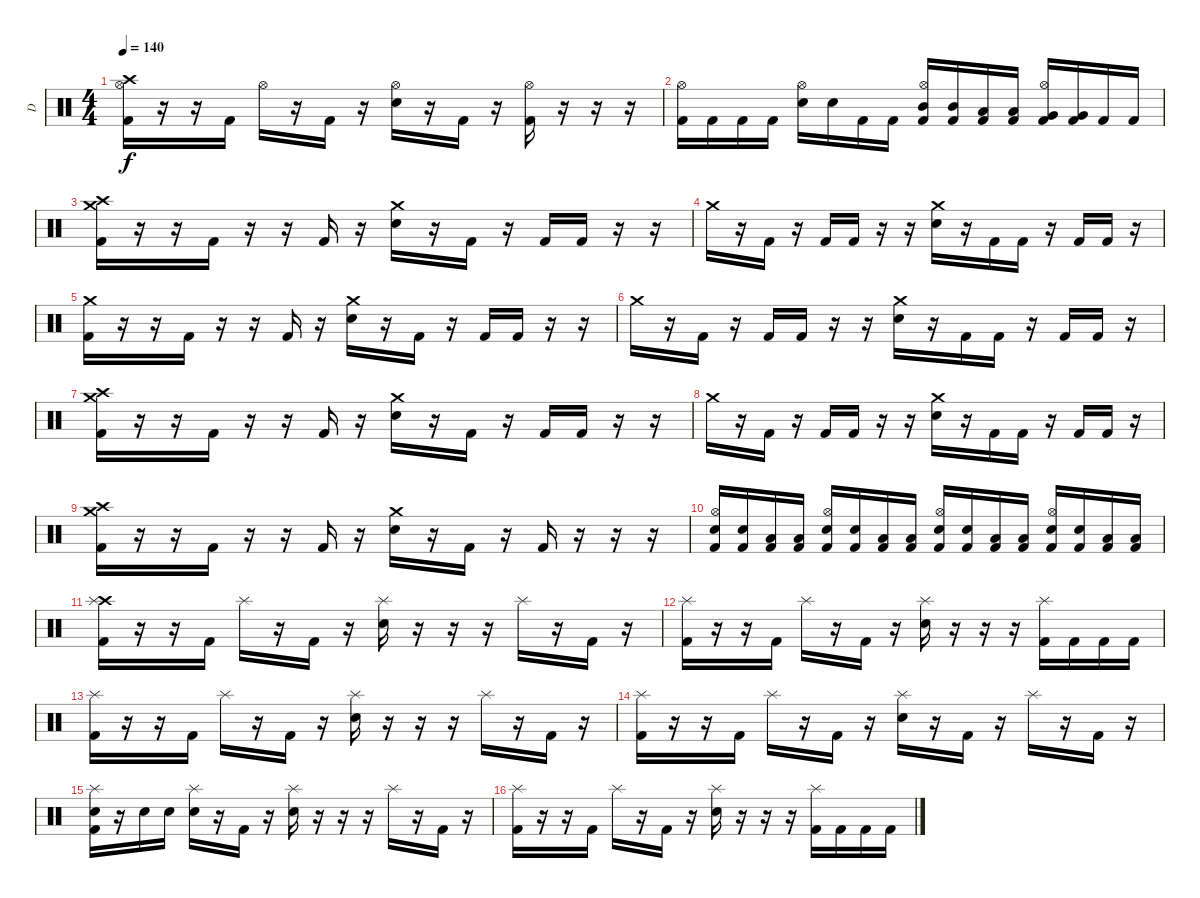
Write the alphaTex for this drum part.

\track ("D" "D") {instrument percussion}
\staff {score}
\articulation defaults
\ts (4 4)
\tempo 140
\clef neutral
\ks c
("Crash high (hit)" "Kick (hit) 2" "Hi-Hat (open)").16{dy f} r.16 r.16 "Kick (hit) 2".16 "Hi-Hat (open)".16 r.16 "Kick (hit) 2".16 r.16 ("Electric Snare (hit)" "Hi-Hat (open)").16 r.16 "Kick (hit) 2".16 r.16 ("Kick (hit) 2" "Hi-Hat (open)").16 r.16 r.16 r.16 |
("Kick (hit) 2" "Hi-Hat (open)").16 "Kick (hit) 2".16 "Kick (hit) 2".16 "Kick (hit) 2".16 ("Electric Snare (hit)" "Hi-Hat (open)").16 "Electric Snare (hit)".16 "Kick (hit) 2".16 "Kick (hit) 2".16 ("Mid Tom (hit)" "Kick (hit) 2" "Hi-Hat (open)").16 ("Mid Tom (hit)" "Kick (hit) 2").16 ("Low Tom (hit)" "Kick (hit) 2").16 ("Low Tom (hit)" "Kick (hit) 2").16 ("Very Low Tom (hit)" "Kick (hit) 2" "Hi-Hat (open)").16 ("Very Low Tom (hit)" "Kick (hit) 2").16 "Kick (hit) 2".16 "Kick (hit) 2".16 |
("Crash high (hit)" "Kick (hit) 2" "Crash medium (hit)").16 r.16 r.16 "Kick (hit) 2".16 r.16 r.16 "Kick (hit) 2".16 r.16 ("Electric Snare (hit)" "Crash medium (hit)").16 r.16 "Kick (hit) 2".16 r.16 "Kick (hit) 2".16 "Kick (hit) 2".16 r.16 r.16 |
"Crash medium (hit)".16 r.16 "Kick (hit) 2".16 r.16 "Kick (hit) 2".16 "Kick (hit) 2".16 r.16 r.16 ("Electric Snare (hit)" "Crash medium (hit)").16 r.16 "Kick (hit) 2".16 "Kick (hit) 2".16 r.16 "Kick (hit) 2".16 "Kick (hit) 2".16 r.16 |
("Kick (hit) 2" "Crash medium (hit)").16 r.16 r.16 "Kick (hit) 2".16 r.16 r.16 "Kick (hit) 2".16 r.16 ("Electric Snare (hit)" "Crash medium (hit)").16 r.16 "Kick (hit) 2".16 r.16 "Kick (hit) 2".16 "Kick (hit) 2".16 r.16 r.16 |
"Crash medium (hit)".16 r.16 "Kick (hit) 2".16 r.16 "Kick (hit) 2".16 "Kick (hit) 2".16 r.16 r.16 ("Electric Snare (hit)" "Crash medium (hit)").16 r.16 "Kick (hit) 2".16 "Kick (hit) 2".16 r.16 "Kick (hit) 2".16 "Kick (hit) 2".16 r.16 |
("Crash high (hit)" "Kick (hit) 2" "Crash medium (hit)").16 r.16 r.16 "Kick (hit) 2".16 r.16 r.16 "Kick (hit) 2".16 r.16 ("Electric Snare (hit)" "Crash medium (hit)").16 r.16 "Kick (hit) 2".16 r.16 "Kick (hit) 2".16 "Kick (hit) 2".16 r.16 r.16 |
"Crash medium (hit)".16 r.16 "Kick (hit) 2".16 r.16 "Kick (hit) 2".16 "Kick (hit) 2".16 r.16 r.16 ("Electric Snare (hit)" "Crash medium (hit)").16 r.16 "Kick (hit) 2".16 "Kick (hit) 2".16 r.16 "Kick (hit) 2".16 "Kick (hit) 2".16 r.16 |
("Crash high (hit)" "Kick (hit) 2" "Crash medium (hit)").16 r.16 r.16 "Kick (hit) 2".16 r.16 r.16 "Kick (hit) 2".16 r.16 ("Electric Snare (hit)" "Crash medium (hit)").16 r.16 "Kick (hit) 2".16 r.16 "Kick (hit) 2".16 r.16 r.16 r.16 |
("Electric Snare (hit)" "Kick (hit) 2" "Hi-Hat (open)").16 ("Electric Snare (hit)" "Kick (hit) 2").16 ("Low Tom (hit)" "Kick (hit) 2").16 ("Low Tom (hit)" "Kick (hit) 2").16 ("Electric Snare (hit)" "Kick (hit) 2" "Hi-Hat (open)").16 ("Electric Snare (hit)" "Kick (hit) 2").16 ("Low Tom (hit)" "Kick (hit) 2").16 ("Low Tom (hit)" "Kick (hit) 2").16 ("Electric Snare (hit)" "Kick (hit) 2" "Hi-Hat (open)").16 ("Electric Snare (hit)" "Kick (hit) 2").16 ("Low Tom (hit)" "Kick (hit) 2").16 ("Low Tom (hit)" "Kick (hit) 2").16 ("Electric Snare (hit)" "Kick (hit) 2" "Hi-Hat (open)").16 ("Electric Snare (hit)" "Kick (hit) 2").16 ("Low Tom (hit)" "Kick (hit) 2").16 ("Low Tom (hit)" "Kick (hit) 2").16 |
("Crash high (hit)" "Kick (hit) 2" "Splash (hit)").16 r.16 r.16 "Kick (hit) 2".16 "Splash (hit)".16 r.16 "Kick (hit) 2".16 r.16 ("Electric Snare (hit)" "Splash (hit)").16 r.16 r.16 r.16 "Splash (hit)".16 r.16 "Kick (hit) 2".16 r.16 |
("Kick (hit) 2" "Splash (hit)").16 r.16 r.16 "Kick (hit) 2".16 "Splash (hit)".16 r.16 "Kick (hit) 2".16 r.16 ("Electric Snare (hit)" "Splash (hit)").16 r.16 r.16 r.16 ("Kick (hit) 2" "Splash (hit)").16 "Kick (hit) 2".16 "Kick (hit) 2".16 "Kick (hit) 2".16 |
("Kick (hit) 2" "Splash (hit)").16 r.16 r.16 "Kick (hit) 2".16 "Splash (hit)".16 r.16 "Kick (hit) 2".16 r.16 ("Electric Snare (hit)" "Splash (hit)").16 r.16 r.16 r.16 "Splash (hit)".16 r.16 "Kick (hit) 2".16 r.16 |
("Kick (hit) 2" "Splash (hit)").16 r.16 r.16 "Kick (hit) 2".16 "Splash (hit)".16 r.16 "Kick (hit) 2".16 r.16 ("Electric Snare (hit)" "Splash (hit)").16 r.16 "Kick (hit) 2".16 r.16 "Splash (hit)".16 r.16 "Kick (hit) 2".16 r.16 |
("Electric Snare (hit)" "Kick (hit) 2" "Splash (hit)").16 r.16 "Electric Snare (hit)".16 "Electric Snare (hit)".16 ("Electric Snare (hit)" "Splash (hit)").16 r.16 "Kick (hit) 2".16 r.16 ("Electric Snare (hit)" "Splash (hit)").16 r.16 r.16 r.16 "Splash (hit)".16 r.16 "Kick (hit) 2".16 r.16 |
("Kick (hit) 2" "Splash (hit)").16 r.16 r.16 "Kick (hit) 2".16 "Splash (hit)".16 r.16 "Kick (hit) 2".16 r.16 ("Electric Snare (hit)" "Splash (hit)").16 r.16 r.16 r.16 ("Kick (hit) 2" "Splash (hit)").16 "Kick (hit) 2".16 "Kick (hit) 2".16 "Kick (hit) 2".16
